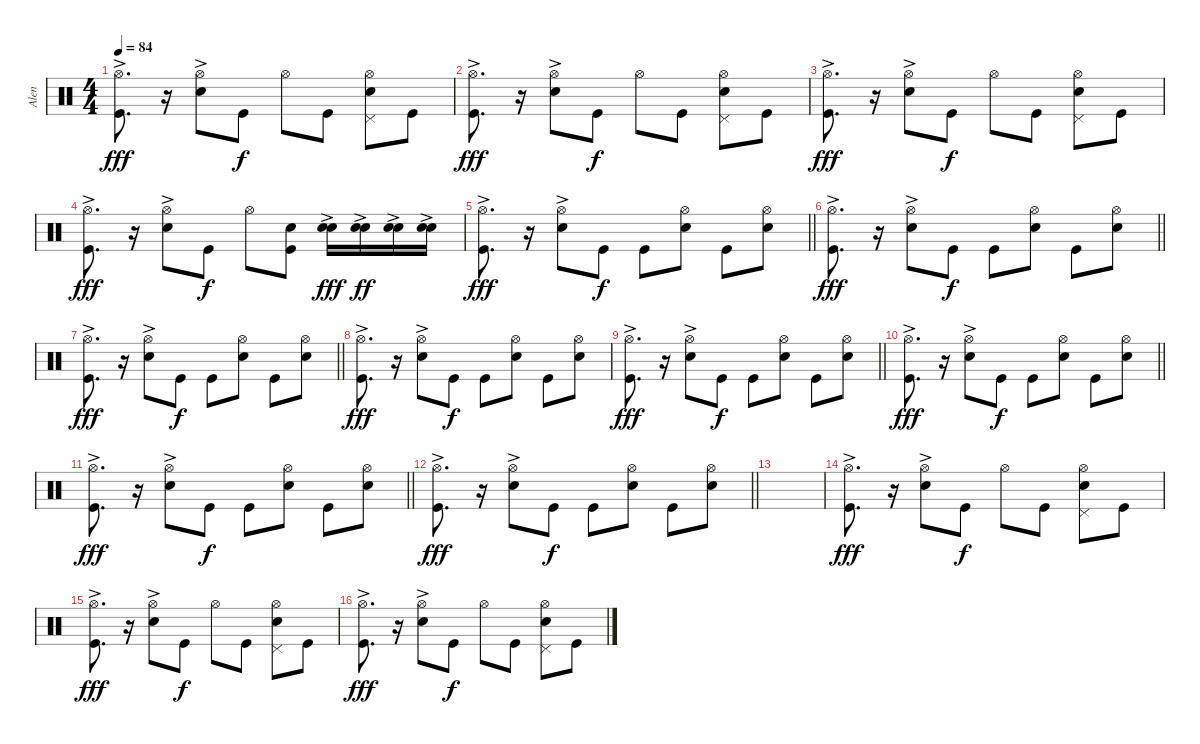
\track ("Alen" "Alen") {instrument percussion}
\staff {score}
\articulation defaults
\ts (4 4)
\tempo 84
\clef neutral
\ks c
("Hi-Hat (open)"{ac} "Kick (hit)").8{d dy fff} r.16 ("Hi-Hat (open)" "Snare (hit) 2"{ac}).8 "Kick (hit)".8{dy f} "Hi-Hat (open)".8 "Kick (hit)".8 ("Pedal Hi-Hat (hit)" "Snare (hit) 2" "Hi-Hat (open)").8 "Kick (hit)".8 |
("Hi-Hat (open)"{ac} "Kick (hit)").8{d dy fff} r.16 ("Hi-Hat (open)" "Snare (hit) 2"{ac}).8 "Kick (hit)".8{dy f} "Hi-Hat (open)".8 "Kick (hit)".8 ("Pedal Hi-Hat (hit)" "Snare (hit) 2" "Hi-Hat (open)").8 "Kick (hit)".8 |
("Hi-Hat (open)"{ac} "Kick (hit)").8{d dy fff} r.16 ("Hi-Hat (open)" "Snare (hit) 2"{ac}).8 "Kick (hit)".8{dy f} "Hi-Hat (open)".8 "Kick (hit)".8 ("Pedal Hi-Hat (hit)" "Snare (hit) 2" "Hi-Hat (open)").8 "Kick (hit)".8 |
("Hi-Hat (open)"{ac} "Kick (hit)").8{d dy fff} r.16 ("Hi-Hat (open)" "Snare (hit) 2"{ac}).8 "Kick (hit)".8{dy f} "Hi-Hat (open)".8 ("Electric Snare (hit)" "Kick (hit)").8 ("Snare (hit) 2"{ac} "Electric Snare (hit)"{ac}).16{dy fff} ("Snare (hit) 2"{ac} "Electric Snare (hit)").16{dy ff} ("Snare (hit) 2"{ac} "Electric Snare (hit)").16 ("Snare (hit) 2"{ac} "Electric Snare (hit)").16 |
\barLineRight lightlight
("Hi-Hat (open)"{ac} "Kick (hit)").8{d dy fff} r.16 ("Hi-Hat (open)" "Snare (hit) 2"{ac}).8 "Kick (hit)".8{dy f} "Kick (hit)".8 ("Electric Snare (hit)" "Hi-Hat (open)").8 "Kick (hit)".8 ("Electric Snare (hit)" "Hi-Hat (open)").8 |
\barLineRight lightlight
("Hi-Hat (open)"{ac} "Kick (hit)").8{d dy fff} r.16 ("Hi-Hat (open)" "Snare (hit) 2"{ac}).8 "Kick (hit)".8{dy f} "Kick (hit)".8 ("Electric Snare (hit)" "Hi-Hat (open)").8 "Kick (hit)".8 ("Electric Snare (hit)" "Hi-Hat (open)").8 |
\barLineRight lightlight
("Hi-Hat (open)"{ac} "Kick (hit)").8{d dy fff} r.16 ("Hi-Hat (open)" "Snare (hit) 2"{ac}).8 "Kick (hit)".8{dy f} "Kick (hit)".8 ("Electric Snare (hit)" "Hi-Hat (open)").8 "Kick (hit)".8 ("Electric Snare (hit)" "Hi-Hat (open)").8 |
("Hi-Hat (open)"{ac} "Kick (hit)").8{d dy fff} r.16 ("Hi-Hat (open)" "Snare (hit) 2"{ac}).8 "Kick (hit)".8{dy f} "Kick (hit)".8 ("Electric Snare (hit)" "Hi-Hat (open)").8 "Kick (hit)".8 ("Electric Snare (hit)" "Hi-Hat (open)").8 |
\barLineRight lightlight
("Hi-Hat (open)"{ac} "Kick (hit)").8{d dy fff} r.16 ("Hi-Hat (open)" "Snare (hit) 2"{ac}).8 "Kick (hit)".8{dy f} "Kick (hit)".8 ("Electric Snare (hit)" "Hi-Hat (open)").8 "Kick (hit)".8 ("Electric Snare (hit)" "Hi-Hat (open)").8 |
\barLineRight lightlight
("Hi-Hat (open)"{ac} "Kick (hit)").8{d dy fff} r.16 ("Hi-Hat (open)" "Snare (hit) 2"{ac}).8 "Kick (hit)".8{dy f} "Kick (hit)".8 ("Electric Snare (hit)" "Hi-Hat (open)").8 "Kick (hit)".8 ("Electric Snare (hit)" "Hi-Hat (open)").8 |
\barLineRight lightlight
("Hi-Hat (open)"{ac} "Kick (hit)").8{d dy fff} r.16 ("Hi-Hat (open)" "Snare (hit) 2"{ac}).8 "Kick (hit)".8{dy f} "Kick (hit)".8 ("Electric Snare (hit)" "Hi-Hat (open)").8 "Kick (hit)".8 ("Electric Snare (hit)" "Hi-Hat (open)").8 |
\barLineRight lightlight
("Hi-Hat (open)"{ac} "Kick (hit)").8{d dy fff} r.16 ("Hi-Hat (open)" "Snare (hit) 2"{ac}).8 "Kick (hit)".8{dy f} "Kick (hit)".8 ("Electric Snare (hit)" "Hi-Hat (open)").8 "Kick (hit)".8 ("Electric Snare (hit)" "Hi-Hat (open)").8 |
|
("Hi-Hat (open)"{ac} "Kick (hit)").8{d dy fff} r.16 ("Hi-Hat (open)" "Snare (hit) 2"{ac}).8 "Kick (hit)".8{dy f} "Hi-Hat (open)".8 "Kick (hit)".8 ("Pedal Hi-Hat (hit)" "Snare (hit) 2" "Hi-Hat (open)").8 "Kick (hit)".8 |
("Hi-Hat (open)"{ac} "Kick (hit)").8{d dy fff} r.16 ("Hi-Hat (open)" "Snare (hit) 2"{ac}).8 "Kick (hit)".8{dy f} "Hi-Hat (open)".8 "Kick (hit)".8 ("Pedal Hi-Hat (hit)" "Snare (hit) 2" "Hi-Hat (open)").8 "Kick (hit)".8 |
("Hi-Hat (open)"{ac} "Kick (hit)").8{d dy fff} r.16 ("Hi-Hat (open)" "Snare (hit) 2"{ac}).8 "Kick (hit)".8{dy f} "Hi-Hat (open)".8 "Kick (hit)".8 ("Pedal Hi-Hat (hit)" "Snare (hit) 2" "Hi-Hat (open)").8 "Kick (hit)".8
